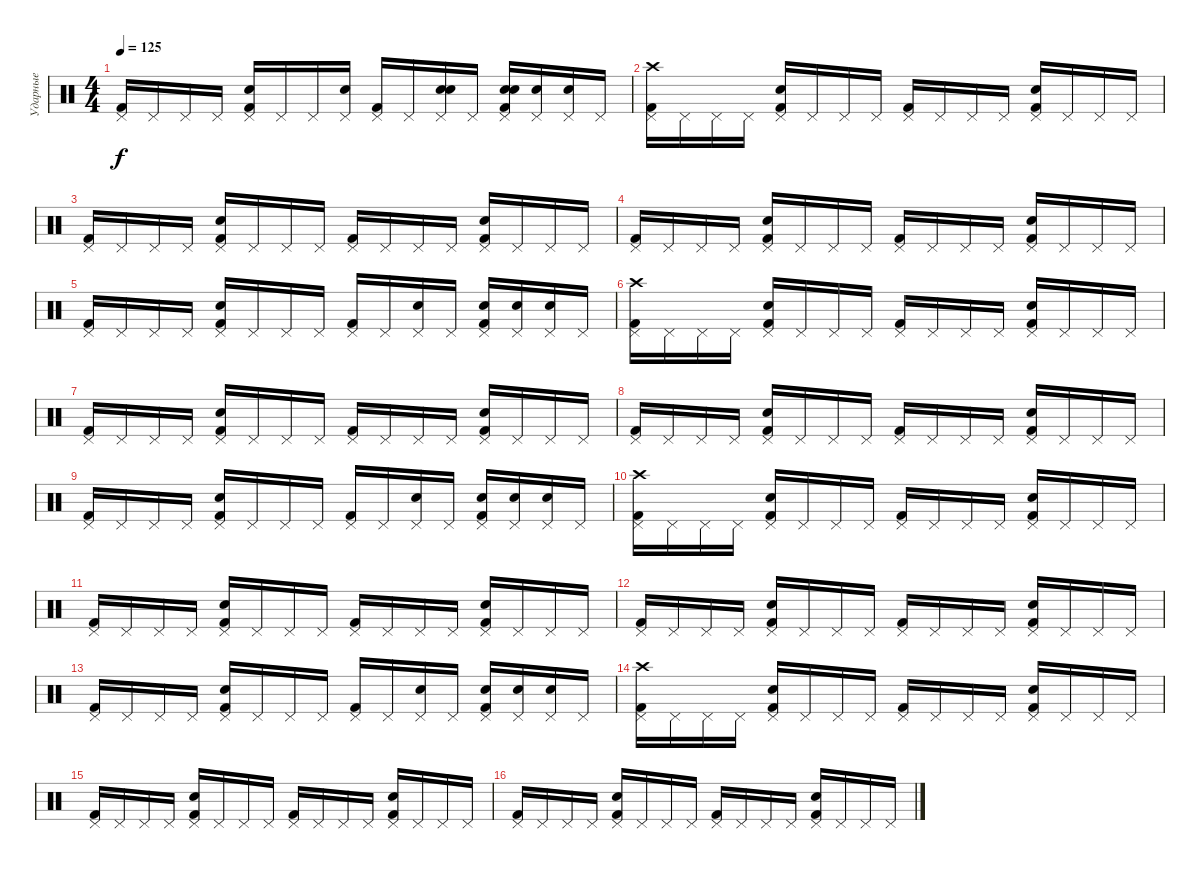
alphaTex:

\track ("Ударные" "Ударные") {instrument percussion}
\staff {score}
\articulation defaults
\ts (4 4)
\tempo 125
\clef neutral
\ks c
("Kick (hit) 2" "Pedal Hi-Hat (hit)").16{dy f} "Pedal Hi-Hat (hit)".16 "Pedal Hi-Hat (hit)".16 "Pedal Hi-Hat (hit)".16 ("Kick (hit) 2" "Pedal Hi-Hat (hit)" "Snare (hit) 2").16 "Pedal Hi-Hat (hit)".16 "Pedal Hi-Hat (hit)".16 ("Pedal Hi-Hat (hit)" "Hand Clap (hit)").16 ("Kick (hit) 2" "Pedal Hi-Hat (hit)").16 "Pedal Hi-Hat (hit)".16 ("Pedal Hi-Hat (hit)" "Snare (hit) 2" "Hand Clap (hit)").16 "Pedal Hi-Hat (hit)".16 ("Kick (hit) 2" "Pedal Hi-Hat (hit)" "Snare (hit) 2" "Hand Clap (hit)").16 ("Pedal Hi-Hat (hit)" "Snare (hit) 2").16 ("Pedal Hi-Hat (hit)" "Snare (hit) 2").16 "Pedal Hi-Hat (hit)".16 |
("Kick (hit) 2" "Pedal Hi-Hat (hit)" "Crash high (hit)").16 "Pedal Hi-Hat (hit)".16 "Pedal Hi-Hat (hit)".16 "Pedal Hi-Hat (hit)".16 ("Kick (hit) 2" "Pedal Hi-Hat (hit)" "Snare (hit) 2").16 "Pedal Hi-Hat (hit)".16 "Pedal Hi-Hat (hit)".16 "Pedal Hi-Hat (hit)".16 ("Kick (hit) 2" "Pedal Hi-Hat (hit)").16 "Pedal Hi-Hat (hit)".16 "Pedal Hi-Hat (hit)".16 "Pedal Hi-Hat (hit)".16 ("Kick (hit) 2" "Pedal Hi-Hat (hit)" "Snare (hit) 2").16 "Pedal Hi-Hat (hit)".16 "Pedal Hi-Hat (hit)".16 "Pedal Hi-Hat (hit)".16 |
("Kick (hit) 2" "Pedal Hi-Hat (hit)").16 "Pedal Hi-Hat (hit)".16 "Pedal Hi-Hat (hit)".16 "Pedal Hi-Hat (hit)".16 ("Kick (hit) 2" "Pedal Hi-Hat (hit)" "Snare (hit) 2").16 "Pedal Hi-Hat (hit)".16 "Pedal Hi-Hat (hit)".16 "Pedal Hi-Hat (hit)".16 ("Kick (hit) 2" "Pedal Hi-Hat (hit)").16 "Pedal Hi-Hat (hit)".16 "Pedal Hi-Hat (hit)".16 "Pedal Hi-Hat (hit)".16 ("Kick (hit) 2" "Pedal Hi-Hat (hit)" "Snare (hit) 2").16 "Pedal Hi-Hat (hit)".16 "Pedal Hi-Hat (hit)".16 "Pedal Hi-Hat (hit)".16 |
("Kick (hit) 2" "Pedal Hi-Hat (hit)").16 "Pedal Hi-Hat (hit)".16 "Pedal Hi-Hat (hit)".16 "Pedal Hi-Hat (hit)".16 ("Kick (hit) 2" "Pedal Hi-Hat (hit)" "Snare (hit) 2").16 "Pedal Hi-Hat (hit)".16 "Pedal Hi-Hat (hit)".16 "Pedal Hi-Hat (hit)".16 ("Kick (hit) 2" "Pedal Hi-Hat (hit)").16 "Pedal Hi-Hat (hit)".16 "Pedal Hi-Hat (hit)".16 "Pedal Hi-Hat (hit)".16 ("Kick (hit) 2" "Pedal Hi-Hat (hit)" "Snare (hit) 2").16 "Pedal Hi-Hat (hit)".16 "Pedal Hi-Hat (hit)".16 "Pedal Hi-Hat (hit)".16 |
("Kick (hit) 2" "Pedal Hi-Hat (hit)").16 "Pedal Hi-Hat (hit)".16 "Pedal Hi-Hat (hit)".16 "Pedal Hi-Hat (hit)".16 ("Kick (hit) 2" "Pedal Hi-Hat (hit)" "Snare (hit) 2").16 "Pedal Hi-Hat (hit)".16 "Pedal Hi-Hat (hit)".16 "Pedal Hi-Hat (hit)".16 ("Kick (hit) 2" "Pedal Hi-Hat (hit)").16 "Pedal Hi-Hat (hit)".16 ("Pedal Hi-Hat (hit)" "Snare (hit) 2").16 "Pedal Hi-Hat (hit)".16 ("Kick (hit) 2" "Pedal Hi-Hat (hit)" "Snare (hit) 2").16 ("Pedal Hi-Hat (hit)" "Snare (hit) 2").16 ("Pedal Hi-Hat (hit)" "Snare (hit) 2").16 "Pedal Hi-Hat (hit)".16 |
("Kick (hit) 2" "Pedal Hi-Hat (hit)" "Crash high (hit)").16 "Pedal Hi-Hat (hit)".16 "Pedal Hi-Hat (hit)".16 "Pedal Hi-Hat (hit)".16 ("Kick (hit) 2" "Pedal Hi-Hat (hit)" "Snare (hit) 2").16 "Pedal Hi-Hat (hit)".16 "Pedal Hi-Hat (hit)".16 "Pedal Hi-Hat (hit)".16 ("Kick (hit) 2" "Pedal Hi-Hat (hit)").16 "Pedal Hi-Hat (hit)".16 "Pedal Hi-Hat (hit)".16 "Pedal Hi-Hat (hit)".16 ("Kick (hit) 2" "Pedal Hi-Hat (hit)" "Snare (hit) 2").16 "Pedal Hi-Hat (hit)".16 "Pedal Hi-Hat (hit)".16 "Pedal Hi-Hat (hit)".16 |
("Kick (hit) 2" "Pedal Hi-Hat (hit)").16 "Pedal Hi-Hat (hit)".16 "Pedal Hi-Hat (hit)".16 "Pedal Hi-Hat (hit)".16 ("Kick (hit) 2" "Pedal Hi-Hat (hit)" "Snare (hit) 2").16 "Pedal Hi-Hat (hit)".16 "Pedal Hi-Hat (hit)".16 "Pedal Hi-Hat (hit)".16 ("Kick (hit) 2" "Pedal Hi-Hat (hit)").16 "Pedal Hi-Hat (hit)".16 "Pedal Hi-Hat (hit)".16 "Pedal Hi-Hat (hit)".16 ("Kick (hit) 2" "Pedal Hi-Hat (hit)" "Snare (hit) 2").16 "Pedal Hi-Hat (hit)".16 "Pedal Hi-Hat (hit)".16 "Pedal Hi-Hat (hit)".16 |
("Kick (hit) 2" "Pedal Hi-Hat (hit)").16 "Pedal Hi-Hat (hit)".16 "Pedal Hi-Hat (hit)".16 "Pedal Hi-Hat (hit)".16 ("Kick (hit) 2" "Pedal Hi-Hat (hit)" "Snare (hit) 2").16 "Pedal Hi-Hat (hit)".16 "Pedal Hi-Hat (hit)".16 "Pedal Hi-Hat (hit)".16 ("Kick (hit) 2" "Pedal Hi-Hat (hit)").16 "Pedal Hi-Hat (hit)".16 "Pedal Hi-Hat (hit)".16 "Pedal Hi-Hat (hit)".16 ("Kick (hit) 2" "Pedal Hi-Hat (hit)" "Snare (hit) 2").16 "Pedal Hi-Hat (hit)".16 "Pedal Hi-Hat (hit)".16 "Pedal Hi-Hat (hit)".16 |
("Kick (hit) 2" "Pedal Hi-Hat (hit)").16 "Pedal Hi-Hat (hit)".16 "Pedal Hi-Hat (hit)".16 "Pedal Hi-Hat (hit)".16 ("Kick (hit) 2" "Pedal Hi-Hat (hit)" "Snare (hit) 2").16 "Pedal Hi-Hat (hit)".16 "Pedal Hi-Hat (hit)".16 "Pedal Hi-Hat (hit)".16 ("Kick (hit) 2" "Pedal Hi-Hat (hit)").16 "Pedal Hi-Hat (hit)".16 ("Pedal Hi-Hat (hit)" "Snare (hit) 2").16 "Pedal Hi-Hat (hit)".16 ("Kick (hit) 2" "Pedal Hi-Hat (hit)" "Snare (hit) 2").16 ("Pedal Hi-Hat (hit)" "Snare (hit) 2").16 ("Pedal Hi-Hat (hit)" "Snare (hit) 2").16 "Pedal Hi-Hat (hit)".16 |
("Kick (hit) 2" "Pedal Hi-Hat (hit)" "Crash high (hit)").16 "Pedal Hi-Hat (hit)".16 "Pedal Hi-Hat (hit)".16 "Pedal Hi-Hat (hit)".16 ("Kick (hit) 2" "Pedal Hi-Hat (hit)" "Snare (hit) 2").16 "Pedal Hi-Hat (hit)".16 "Pedal Hi-Hat (hit)".16 "Pedal Hi-Hat (hit)".16 ("Kick (hit) 2" "Pedal Hi-Hat (hit)").16 "Pedal Hi-Hat (hit)".16 "Pedal Hi-Hat (hit)".16 "Pedal Hi-Hat (hit)".16 ("Kick (hit) 2" "Pedal Hi-Hat (hit)" "Snare (hit) 2").16 "Pedal Hi-Hat (hit)".16 "Pedal Hi-Hat (hit)".16 "Pedal Hi-Hat (hit)".16 |
("Kick (hit) 2" "Pedal Hi-Hat (hit)").16 "Pedal Hi-Hat (hit)".16 "Pedal Hi-Hat (hit)".16 "Pedal Hi-Hat (hit)".16 ("Kick (hit) 2" "Pedal Hi-Hat (hit)" "Snare (hit) 2").16 "Pedal Hi-Hat (hit)".16 "Pedal Hi-Hat (hit)".16 "Pedal Hi-Hat (hit)".16 ("Kick (hit) 2" "Pedal Hi-Hat (hit)").16 "Pedal Hi-Hat (hit)".16 "Pedal Hi-Hat (hit)".16 "Pedal Hi-Hat (hit)".16 ("Kick (hit) 2" "Pedal Hi-Hat (hit)" "Snare (hit) 2").16 "Pedal Hi-Hat (hit)".16 "Pedal Hi-Hat (hit)".16 "Pedal Hi-Hat (hit)".16 |
("Kick (hit) 2" "Pedal Hi-Hat (hit)").16 "Pedal Hi-Hat (hit)".16 "Pedal Hi-Hat (hit)".16 "Pedal Hi-Hat (hit)".16 ("Kick (hit) 2" "Pedal Hi-Hat (hit)" "Snare (hit) 2").16 "Pedal Hi-Hat (hit)".16 "Pedal Hi-Hat (hit)".16 "Pedal Hi-Hat (hit)".16 ("Kick (hit) 2" "Pedal Hi-Hat (hit)").16 "Pedal Hi-Hat (hit)".16 "Pedal Hi-Hat (hit)".16 "Pedal Hi-Hat (hit)".16 ("Kick (hit) 2" "Pedal Hi-Hat (hit)" "Snare (hit) 2").16 "Pedal Hi-Hat (hit)".16 "Pedal Hi-Hat (hit)".16 "Pedal Hi-Hat (hit)".16 |
("Kick (hit) 2" "Pedal Hi-Hat (hit)").16 "Pedal Hi-Hat (hit)".16 "Pedal Hi-Hat (hit)".16 "Pedal Hi-Hat (hit)".16 ("Kick (hit) 2" "Pedal Hi-Hat (hit)" "Snare (hit) 2").16 "Pedal Hi-Hat (hit)".16 "Pedal Hi-Hat (hit)".16 "Pedal Hi-Hat (hit)".16 ("Kick (hit) 2" "Pedal Hi-Hat (hit)").16 "Pedal Hi-Hat (hit)".16 ("Pedal Hi-Hat (hit)" "Snare (hit) 2").16 "Pedal Hi-Hat (hit)".16 ("Kick (hit) 2" "Pedal Hi-Hat (hit)" "Snare (hit) 2").16 ("Pedal Hi-Hat (hit)" "Snare (hit) 2").16 ("Pedal Hi-Hat (hit)" "Snare (hit) 2").16 "Pedal Hi-Hat (hit)".16 |
("Kick (hit) 2" "Pedal Hi-Hat (hit)" "Crash high (hit)").16 "Pedal Hi-Hat (hit)".16 "Pedal Hi-Hat (hit)".16 "Pedal Hi-Hat (hit)".16 ("Kick (hit) 2" "Pedal Hi-Hat (hit)" "Snare (hit) 2").16 "Pedal Hi-Hat (hit)".16 "Pedal Hi-Hat (hit)".16 "Pedal Hi-Hat (hit)".16 ("Kick (hit) 2" "Pedal Hi-Hat (hit)").16 "Pedal Hi-Hat (hit)".16 "Pedal Hi-Hat (hit)".16 "Pedal Hi-Hat (hit)".16 ("Kick (hit) 2" "Pedal Hi-Hat (hit)" "Snare (hit) 2").16 "Pedal Hi-Hat (hit)".16 "Pedal Hi-Hat (hit)".16 "Pedal Hi-Hat (hit)".16 |
("Kick (hit) 2" "Pedal Hi-Hat (hit)").16 "Pedal Hi-Hat (hit)".16 "Pedal Hi-Hat (hit)".16 "Pedal Hi-Hat (hit)".16 ("Kick (hit) 2" "Pedal Hi-Hat (hit)" "Snare (hit) 2").16 "Pedal Hi-Hat (hit)".16 "Pedal Hi-Hat (hit)".16 "Pedal Hi-Hat (hit)".16 ("Kick (hit) 2" "Pedal Hi-Hat (hit)").16 "Pedal Hi-Hat (hit)".16 "Pedal Hi-Hat (hit)".16 "Pedal Hi-Hat (hit)".16 ("Kick (hit) 2" "Pedal Hi-Hat (hit)" "Snare (hit) 2").16 "Pedal Hi-Hat (hit)".16 "Pedal Hi-Hat (hit)".16 "Pedal Hi-Hat (hit)".16 |
("Kick (hit) 2" "Pedal Hi-Hat (hit)").16 "Pedal Hi-Hat (hit)".16 "Pedal Hi-Hat (hit)".16 "Pedal Hi-Hat (hit)".16 ("Kick (hit) 2" "Pedal Hi-Hat (hit)" "Snare (hit) 2").16 "Pedal Hi-Hat (hit)".16 "Pedal Hi-Hat (hit)".16 "Pedal Hi-Hat (hit)".16 ("Kick (hit) 2" "Pedal Hi-Hat (hit)").16 "Pedal Hi-Hat (hit)".16 "Pedal Hi-Hat (hit)".16 "Pedal Hi-Hat (hit)".16 ("Kick (hit) 2" "Pedal Hi-Hat (hit)" "Snare (hit) 2").16 "Pedal Hi-Hat (hit)".16 "Pedal Hi-Hat (hit)".16 "Pedal Hi-Hat (hit)".16
